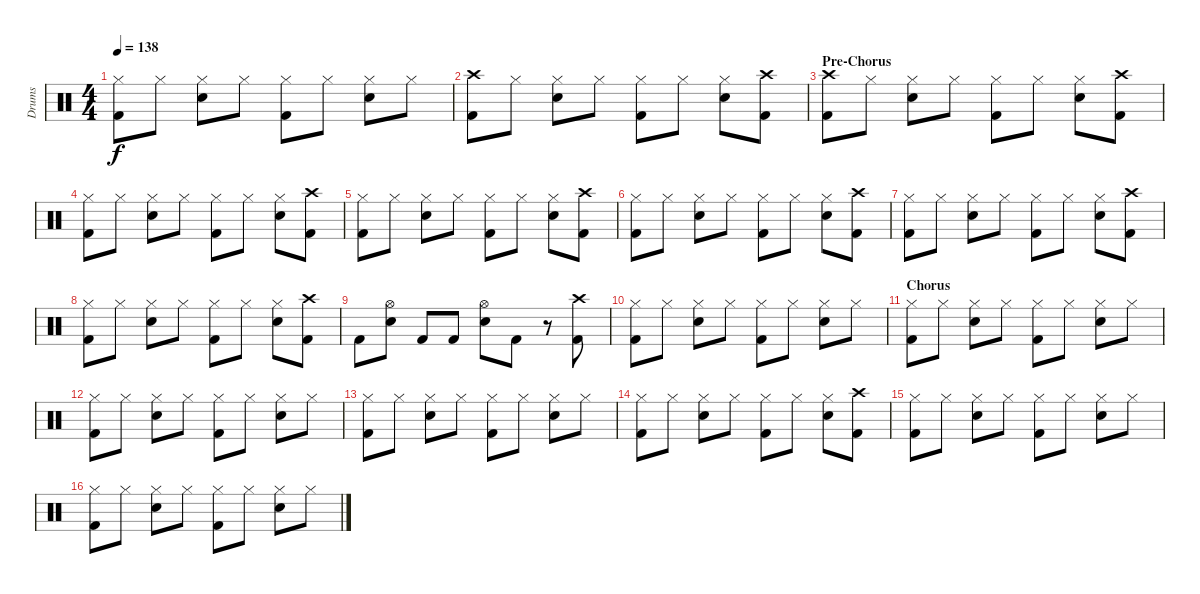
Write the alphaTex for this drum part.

\track ("Drums" "Drums") {instrument percussion}
\staff {score}
\articulation defaults
\ts (4 4)
\tempo 138
\clef neutral
\ks c
("Hi-Hat (closed)" "Kick (hit) 2").8{dy f} "Hi-Hat (closed)".8 ("Hi-Hat (closed)" "Snare (hit) 2").8 "Hi-Hat (closed)".8 ("Hi-Hat (closed)" "Kick (hit) 2").8 "Hi-Hat (closed)".8 ("Hi-Hat (closed)" "Snare (hit) 2").8 "Hi-Hat (closed)".8 |
("Crash high (hit)" "Kick (hit) 2").8 "Hi-Hat (closed)".8 ("Hi-Hat (closed)" "Snare (hit) 2").8 "Hi-Hat (closed)".8 ("Hi-Hat (closed)" "Kick (hit) 2").8 "Hi-Hat (closed)".8 ("Hi-Hat (closed)" "Snare (hit) 2").8 ("Crash high (hit)" "Kick (hit) 2").8 |
\section ("" "Pre-Chorus")
("Crash high (hit)" "Kick (hit) 2").8 "Hi-Hat (closed)".8 ("Hi-Hat (closed)" "Snare (hit) 2").8 "Hi-Hat (closed)".8 ("Hi-Hat (closed)" "Kick (hit) 2").8 "Hi-Hat (closed)".8 ("Hi-Hat (closed)" "Snare (hit) 2").8 ("Crash high (hit)" "Kick (hit) 2").8 |
("Hi-Hat (closed)" "Kick (hit) 2").8 "Hi-Hat (closed)".8 ("Hi-Hat (closed)" "Snare (hit) 2").8 "Hi-Hat (closed)".8 ("Hi-Hat (closed)" "Kick (hit) 2").8 "Hi-Hat (closed)".8 ("Hi-Hat (closed)" "Snare (hit) 2").8 ("Crash high (hit)" "Kick (hit) 2").8 |
("Hi-Hat (closed)" "Kick (hit) 2").8 "Hi-Hat (closed)".8 ("Hi-Hat (closed)" "Snare (hit) 2").8 "Hi-Hat (closed)".8 ("Hi-Hat (closed)" "Kick (hit) 2").8 "Hi-Hat (closed)".8 ("Hi-Hat (closed)" "Snare (hit) 2").8 ("Crash high (hit)" "Kick (hit) 2").8 |
("Hi-Hat (closed)" "Kick (hit) 2").8 "Hi-Hat (closed)".8 ("Hi-Hat (closed)" "Snare (hit) 2").8 "Hi-Hat (closed)".8 ("Hi-Hat (closed)" "Kick (hit) 2").8 "Hi-Hat (closed)".8 ("Hi-Hat (closed)" "Snare (hit) 2").8 ("Crash high (hit)" "Kick (hit) 2").8 |
("Hi-Hat (closed)" "Kick (hit) 2").8 "Hi-Hat (closed)".8 ("Hi-Hat (closed)" "Snare (hit) 2").8 "Hi-Hat (closed)".8 ("Hi-Hat (closed)" "Kick (hit) 2").8 "Hi-Hat (closed)".8 ("Hi-Hat (closed)" "Snare (hit) 2").8 ("Crash high (hit)" "Kick (hit) 2").8 |
("Hi-Hat (closed)" "Kick (hit) 2").8 "Hi-Hat (closed)".8 ("Hi-Hat (closed)" "Snare (hit) 2").8 "Hi-Hat (closed)".8 ("Hi-Hat (closed)" "Kick (hit) 2").8 "Hi-Hat (closed)".8 ("Hi-Hat (closed)" "Snare (hit) 2").8 ("Crash high (hit)" "Kick (hit) 2").8 |
"Kick (hit) 2".8 ("Hi-Hat (open)" "Snare (hit) 2").8 "Kick (hit) 2".8 "Kick (hit) 2".8 ("Hi-Hat (open)" "Snare (hit) 2").8 "Kick (hit) 2".8 r.8 ("Crash high (hit)" "Kick (hit) 2").8 |
("Hi-Hat (closed)" "Kick (hit) 2").8 "Hi-Hat (closed)".8 ("Hi-Hat (closed)" "Snare (hit) 2").8 "Hi-Hat (closed)".8 ("Hi-Hat (closed)" "Kick (hit) 2").8 "Hi-Hat (closed)".8 ("Hi-Hat (closed)" "Snare (hit) 2").8 "Hi-Hat (closed)".8 |
\section ("" "Chorus")
("Hi-Hat (closed)" "Kick (hit) 2").8 "Hi-Hat (closed)".8 ("Hi-Hat (closed)" "Snare (hit) 2").8 "Hi-Hat (closed)".8 ("Hi-Hat (closed)" "Kick (hit) 2").8 "Hi-Hat (closed)".8 ("Hi-Hat (closed)" "Snare (hit) 2").8 "Hi-Hat (closed)".8 |
("Hi-Hat (closed)" "Kick (hit) 2").8 "Hi-Hat (closed)".8 ("Hi-Hat (closed)" "Snare (hit) 2").8 "Hi-Hat (closed)".8 ("Hi-Hat (closed)" "Kick (hit) 2").8 "Hi-Hat (closed)".8 ("Hi-Hat (closed)" "Snare (hit) 2").8 "Hi-Hat (closed)".8 |
("Hi-Hat (closed)" "Kick (hit) 2").8 "Hi-Hat (closed)".8 ("Hi-Hat (closed)" "Snare (hit) 2").8 "Hi-Hat (closed)".8 ("Hi-Hat (closed)" "Kick (hit) 2").8 "Hi-Hat (closed)".8 ("Hi-Hat (closed)" "Snare (hit) 2").8 "Hi-Hat (closed)".8 |
("Hi-Hat (closed)" "Kick (hit) 2").8 "Hi-Hat (closed)".8 ("Hi-Hat (closed)" "Snare (hit) 2").8 "Hi-Hat (closed)".8 ("Hi-Hat (closed)" "Kick (hit) 2").8 "Hi-Hat (closed)".8 ("Hi-Hat (closed)" "Snare (hit) 2").8 ("Crash high (hit)" "Kick (hit) 2").8 |
("Hi-Hat (closed)" "Kick (hit) 2").8 "Hi-Hat (closed)".8 ("Hi-Hat (closed)" "Snare (hit) 2").8 "Hi-Hat (closed)".8 ("Hi-Hat (closed)" "Kick (hit) 2").8 "Hi-Hat (closed)".8 ("Hi-Hat (closed)" "Snare (hit) 2").8 "Hi-Hat (closed)".8 |
("Hi-Hat (closed)" "Kick (hit) 2").8 "Hi-Hat (closed)".8 ("Hi-Hat (closed)" "Snare (hit) 2").8 "Hi-Hat (closed)".8 ("Hi-Hat (closed)" "Kick (hit) 2").8 "Hi-Hat (closed)".8 ("Hi-Hat (closed)" "Snare (hit) 2").8 "Hi-Hat (closed)".8
